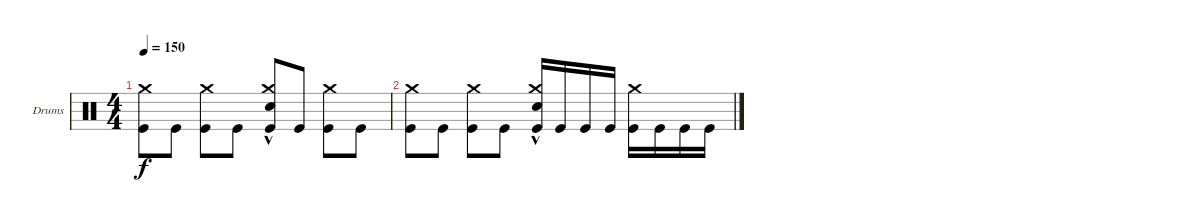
\bracketExtendMode groupsimilarinstruments
\firstSystemTrackNameOrientation horizontal
\otherSystemsTrackNameOrientation horizontal
\track ("Drowned Drumkit" "Drums") {instrument percussion}
\staff {score}
\articulation defaults
\ts (4 4)
\tempo 150
\clef neutral
\scale
0.333333
\ks aminor
("Kick (hit)" "Crash medium (hit)").8{dy f} "Kick (hit)".8 ("Kick (hit)" "Crash medium (hit)").8 "Kick (hit)".8 ("Kick (hit)" "Crash medium (hit)" "Snare (hit) 2"{hac}).8 "Kick (hit)".8 ("Kick (hit)" "Crash medium (hit)").8 "Kick (hit)".8 |
\scale
0.333333 ("Kick (hit)" "Crash medium (hit)").8 "Kick (hit)".8 ("Kick (hit)" "Crash medium (hit)").8 "Kick (hit)".8 ("Kick (hit)" "Crash medium (hit)" "Snare (hit) 2"{hac}).16 "Kick (hit)".16 "Kick (hit)".16 "Kick (hit)".16 ("Kick (hit)" "Crash medium (hit)").16 "Kick (hit)".16 "Kick (hit)".16 "Kick (hit)".16 |
\scale
0.333333 |
\scale
0.333333 |
\scale
0.333333 |
\scale
0.333333 |
\scale
0.333333 |
\scale
0.333333 |
\scale
0.333333 |
\scale
0.333333 |
\scale
0.333333 |
\scale
0.333333 |
\scale
0.333333 |
\scale
0.333333 |
\scale
0.333333 |
\scale
0.333333
